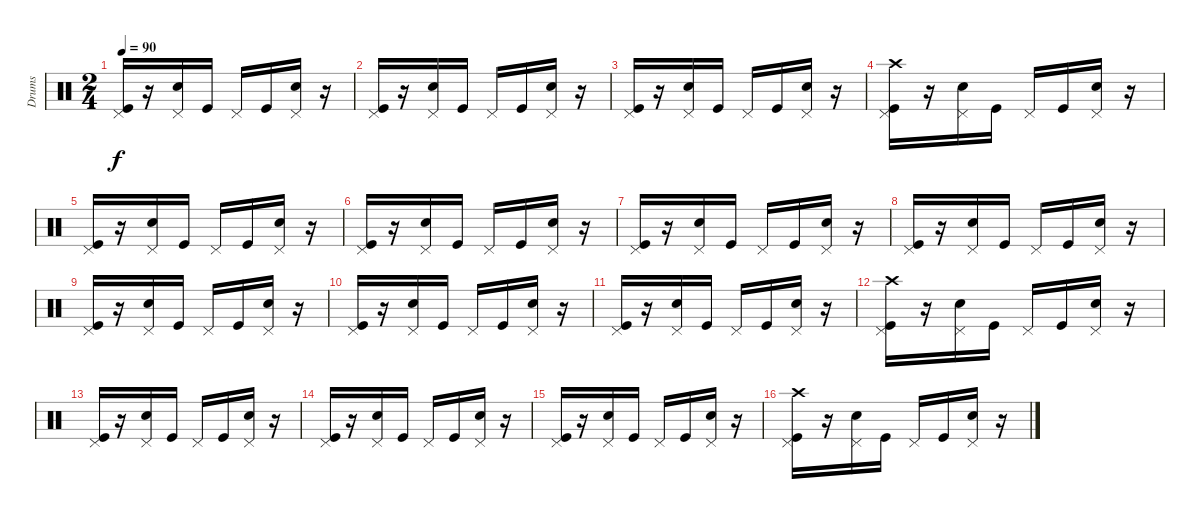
\track ("Drums" "Drums") {instrument percussion}
\staff {score}
\articulation defaults
\ts (2 4)
\tempo 90
\clef neutral
\ks c
("Kick (hit)" "Pedal Hi-Hat (hit)").16{dy f} r.16 ("Snare (hit) 2" "Pedal Hi-Hat (hit)").16 "Kick (hit)".16 "Pedal Hi-Hat (hit)".16 "Kick (hit)".16 ("Snare (hit) 2" "Pedal Hi-Hat (hit)").16 r.16 |
("Kick (hit)" "Pedal Hi-Hat (hit)").16 r.16 ("Snare (hit) 2" "Pedal Hi-Hat (hit)").16 "Kick (hit)".16 "Pedal Hi-Hat (hit)".16 "Kick (hit)".16 ("Snare (hit) 2" "Pedal Hi-Hat (hit)").16 r.16 |
("Kick (hit)" "Pedal Hi-Hat (hit)").16 r.16 ("Snare (hit) 2" "Pedal Hi-Hat (hit)").16 "Kick (hit)".16 "Pedal Hi-Hat (hit)".16 "Kick (hit)".16 ("Snare (hit) 2" "Pedal Hi-Hat (hit)").16 r.16 |
("Crash high (hit)" "Kick (hit)" "Pedal Hi-Hat (hit)").16 r.16 ("Snare (hit) 2" "Pedal Hi-Hat (hit)").16 "Kick (hit)".16 "Pedal Hi-Hat (hit)".16 "Kick (hit)".16 ("Snare (hit) 2" "Pedal Hi-Hat (hit)").16 r.16 |
("Kick (hit)" "Pedal Hi-Hat (hit)").16 r.16 ("Snare (hit) 2" "Pedal Hi-Hat (hit)").16 "Kick (hit)".16 "Pedal Hi-Hat (hit)".16 "Kick (hit)".16 ("Snare (hit) 2" "Pedal Hi-Hat (hit)").16 r.16 |
("Kick (hit)" "Pedal Hi-Hat (hit)").16 r.16 ("Snare (hit) 2" "Pedal Hi-Hat (hit)").16 "Kick (hit)".16 "Pedal Hi-Hat (hit)".16 "Kick (hit)".16 ("Snare (hit) 2" "Pedal Hi-Hat (hit)").16 r.16 |
("Kick (hit)" "Pedal Hi-Hat (hit)").16 r.16 ("Snare (hit) 2" "Pedal Hi-Hat (hit)").16 "Kick (hit)".16 "Pedal Hi-Hat (hit)".16 "Kick (hit)".16 ("Snare (hit) 2" "Pedal Hi-Hat (hit)").16 r.16 |
("Kick (hit)" "Pedal Hi-Hat (hit)").16 r.16 ("Snare (hit) 2" "Pedal Hi-Hat (hit)").16 "Kick (hit)".16 "Pedal Hi-Hat (hit)".16 "Kick (hit)".16 ("Snare (hit) 2" "Pedal Hi-Hat (hit)").16 r.16 |
("Kick (hit)" "Pedal Hi-Hat (hit)").16 r.16 ("Snare (hit) 2" "Pedal Hi-Hat (hit)").16 "Kick (hit)".16 "Pedal Hi-Hat (hit)".16 "Kick (hit)".16 ("Snare (hit) 2" "Pedal Hi-Hat (hit)").16 r.16 |
("Kick (hit)" "Pedal Hi-Hat (hit)").16 r.16 ("Snare (hit) 2" "Pedal Hi-Hat (hit)").16 "Kick (hit)".16 "Pedal Hi-Hat (hit)".16 "Kick (hit)".16 ("Snare (hit) 2" "Pedal Hi-Hat (hit)").16 r.16 |
("Kick (hit)" "Pedal Hi-Hat (hit)").16 r.16 ("Snare (hit) 2" "Pedal Hi-Hat (hit)").16 "Kick (hit)".16 "Pedal Hi-Hat (hit)".16 "Kick (hit)".16 ("Snare (hit) 2" "Pedal Hi-Hat (hit)").16 r.16 |
("Crash high (hit)" "Kick (hit)" "Pedal Hi-Hat (hit)").16 r.16 ("Snare (hit) 2" "Pedal Hi-Hat (hit)").16 "Kick (hit)".16 "Pedal Hi-Hat (hit)".16 "Kick (hit)".16 ("Snare (hit) 2" "Pedal Hi-Hat (hit)").16 r.16 |
("Kick (hit)" "Pedal Hi-Hat (hit)").16 r.16 ("Snare (hit) 2" "Pedal Hi-Hat (hit)").16 "Kick (hit)".16 "Pedal Hi-Hat (hit)".16 "Kick (hit)".16 ("Snare (hit) 2" "Pedal Hi-Hat (hit)").16 r.16 |
("Kick (hit)" "Pedal Hi-Hat (hit)").16 r.16 ("Snare (hit) 2" "Pedal Hi-Hat (hit)").16 "Kick (hit)".16 "Pedal Hi-Hat (hit)".16 "Kick (hit)".16 ("Snare (hit) 2" "Pedal Hi-Hat (hit)").16 r.16 |
("Kick (hit)" "Pedal Hi-Hat (hit)").16 r.16 ("Snare (hit) 2" "Pedal Hi-Hat (hit)").16 "Kick (hit)".16 "Pedal Hi-Hat (hit)".16 "Kick (hit)".16 ("Snare (hit) 2" "Pedal Hi-Hat (hit)").16 r.16 |
("Crash high (hit)" "Kick (hit)" "Pedal Hi-Hat (hit)").16 r.16 ("Snare (hit) 2" "Pedal Hi-Hat (hit)").16 "Kick (hit)".16 "Pedal Hi-Hat (hit)".16 "Kick (hit)".16 ("Snare (hit) 2" "Pedal Hi-Hat (hit)").16 r.16
